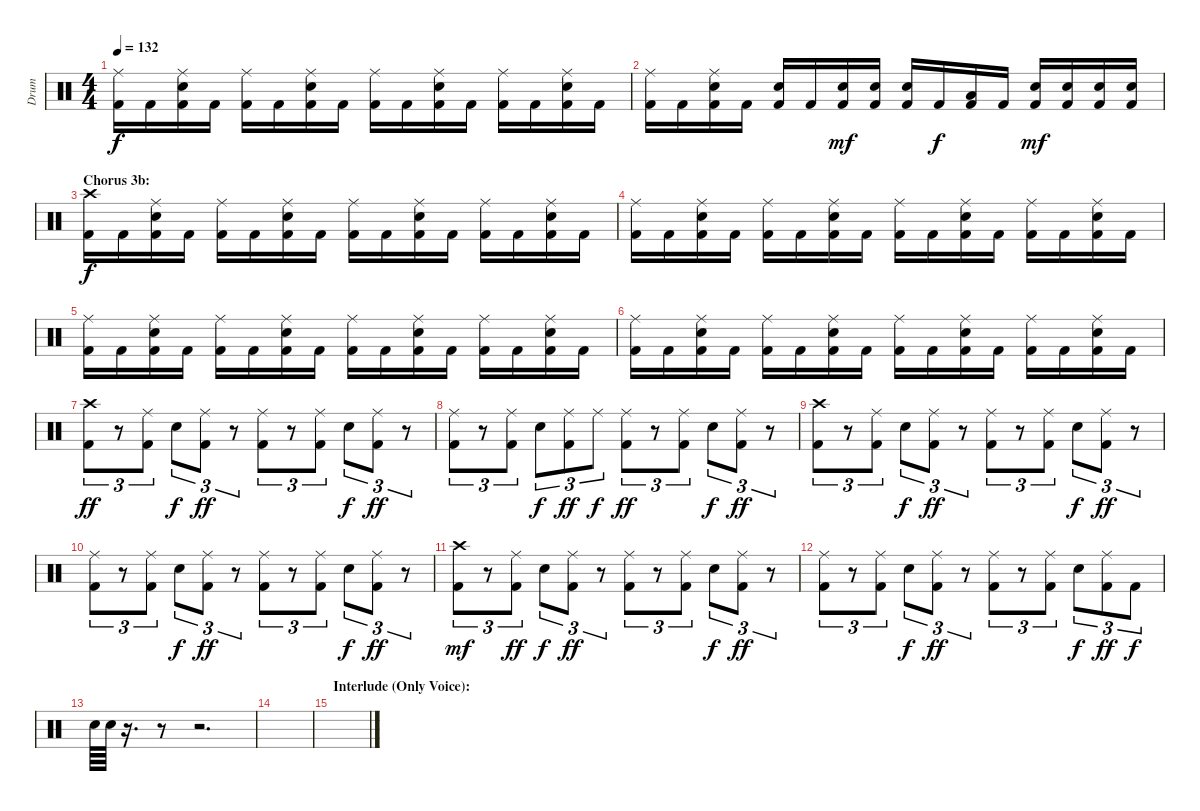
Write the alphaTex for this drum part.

\track ("Drum" "Drum") {instrument percussion}
\staff {score}
\articulation defaults
\ts (4 4)
\tempo 132
\clef neutral
\ks c
("Kick (hit) 2" "Ride (middle)").16{dy f} "Kick (hit) 2".16 ("Kick (hit) 2" "Snare (hit) 2" "Ride (middle)").16 "Kick (hit) 2".16 ("Kick (hit) 2" "Ride (middle)").16 "Kick (hit) 2".16 ("Kick (hit) 2" "Snare (hit) 2" "Ride (middle)").16 "Kick (hit) 2".16 ("Kick (hit) 2" "Ride (middle)").16 "Kick (hit) 2".16 ("Kick (hit) 2" "Snare (hit) 2" "Ride (middle)").16 "Kick (hit) 2".16 ("Kick (hit) 2" "Ride (middle)").16 "Kick (hit) 2".16 ("Kick (hit) 2" "Snare (hit) 2" "Ride (middle)").16 "Kick (hit) 2".16 |
("Kick (hit) 2" "Ride (middle)").16 "Kick (hit) 2".16 ("Kick (hit) 2" "Snare (hit) 2" "Ride (middle)").16 "Kick (hit) 2".16 ("Kick (hit) 2" "Snare (hit) 2").16 "Kick (hit) 2".16 ("Kick (hit) 2" "Snare (hit) 2").16{dy mf} ("Kick (hit) 2" "Snare (hit) 2").16 ("Kick (hit) 2" "Snare (hit) 2").16 "Kick (hit) 2".16{dy f} ("Kick (hit) 2" "Low Tom (hit)").16 "Kick (hit) 2".16 ("Kick (hit) 2" "Snare (hit) 2").16{dy mf} ("Kick (hit) 2" "Snare (hit) 2").16 ("Kick (hit) 2" "Snare (hit) 2").16 ("Kick (hit) 2" "Snare (hit) 2").16 |
\section ("" "Chorus 3b:")
("Kick (hit) 2" "Crash high (hit)").16{dy f} "Kick (hit) 2".16 ("Kick (hit) 2" "Snare (hit) 2" "Ride (middle)").16 "Kick (hit) 2".16 ("Kick (hit) 2" "Ride (middle)").16 "Kick (hit) 2".16 ("Kick (hit) 2" "Snare (hit) 2" "Ride (middle)").16 "Kick (hit) 2".16 ("Kick (hit) 2" "Ride (middle)").16 "Kick (hit) 2".16 ("Kick (hit) 2" "Snare (hit) 2" "Ride (middle)").16 "Kick (hit) 2".16 ("Kick (hit) 2" "Ride (middle)").16 "Kick (hit) 2".16 ("Kick (hit) 2" "Snare (hit) 2" "Ride (middle)").16 "Kick (hit) 2".16 |
("Kick (hit) 2" "Ride (middle)").16 "Kick (hit) 2".16 ("Kick (hit) 2" "Snare (hit) 2" "Ride (middle)").16 "Kick (hit) 2".16 ("Kick (hit) 2" "Ride (middle)").16 "Kick (hit) 2".16 ("Kick (hit) 2" "Snare (hit) 2" "Ride (middle)").16 "Kick (hit) 2".16 ("Kick (hit) 2" "Ride (middle)").16 "Kick (hit) 2".16 ("Kick (hit) 2" "Snare (hit) 2" "Ride (middle)").16 "Kick (hit) 2".16 ("Kick (hit) 2" "Ride (middle)").16 "Kick (hit) 2".16 ("Kick (hit) 2" "Snare (hit) 2" "Ride (middle)").16 "Kick (hit) 2".16 |
("Kick (hit) 2" "Ride (middle)").16 "Kick (hit) 2".16 ("Kick (hit) 2" "Snare (hit) 2" "Ride (middle)").16 "Kick (hit) 2".16 ("Kick (hit) 2" "Ride (middle)").16 "Kick (hit) 2".16 ("Kick (hit) 2" "Snare (hit) 2" "Ride (middle)").16 "Kick (hit) 2".16 ("Kick (hit) 2" "Ride (middle)").16 "Kick (hit) 2".16 ("Kick (hit) 2" "Snare (hit) 2" "Ride (middle)").16 "Kick (hit) 2".16 ("Kick (hit) 2" "Ride (middle)").16 "Kick (hit) 2".16 ("Kick (hit) 2" "Snare (hit) 2" "Ride (middle)").16 "Kick (hit) 2".16 |
("Kick (hit) 2" "Ride (middle)").16 "Kick (hit) 2".16 ("Kick (hit) 2" "Snare (hit) 2" "Ride (middle)").16 "Kick (hit) 2".16 ("Kick (hit) 2" "Ride (middle)").16 "Kick (hit) 2".16 ("Kick (hit) 2" "Snare (hit) 2" "Ride (middle)").16 "Kick (hit) 2".16 ("Kick (hit) 2" "Ride (middle)").16 "Kick (hit) 2".16 ("Kick (hit) 2" "Snare (hit) 2" "Ride (middle)").16 "Kick (hit) 2".16 ("Kick (hit) 2" "Ride (middle)").16 "Kick (hit) 2".16 ("Kick (hit) 2" "Snare (hit) 2" "Ride (middle)").16 "Kick (hit) 2".16 |
("Kick (hit) 2" "Crash high (hit)").8{tu (3 2) dy ff} r.8{tu (3 2)} ("Kick (hit) 2" "Ride (middle)").8{tu (3 2)} "Snare (hit) 2".8{tu (3 2) dy f} ("Kick (hit) 2" "Ride (middle)").8{tu (3 2) dy ff} r.8{tu (3 2)} ("Kick (hit) 2" "Ride (middle)").8{tu (3 2)} r.8{tu (3 2)} ("Kick (hit) 2" "Ride (middle)").8{tu (3 2)} "Snare (hit) 2".8{tu (3 2) dy f} ("Kick (hit) 2" "Ride (middle)").8{tu (3 2) dy ff} r.8{tu (3 2)} |
("Kick (hit) 2" "Ride (middle)").8{tu (3 2)} r.8{tu (3 2)} ("Kick (hit) 2" "Ride (middle)").8{tu (3 2)} "Snare (hit) 2".8{tu (3 2) dy f} ("Kick (hit) 2" "Ride (middle)").8{tu (3 2) dy ff} "Ride (middle)".8{tu (3 2) dy f} ("Kick (hit) 2" "Ride (middle)").8{tu (3 2) dy ff} r.8{tu (3 2)} ("Kick (hit) 2" "Ride (middle)").8{tu (3 2)} "Snare (hit) 2".8{tu (3 2) dy f} ("Kick (hit) 2" "Ride (middle)").8{tu (3 2) dy ff} r.8{tu (3 2)} |
("Kick (hit) 2" "Crash high (hit)").8{tu (3 2)} r.8{tu (3 2)} ("Kick (hit) 2" "Ride (middle)").8{tu (3 2)} "Snare (hit) 2".8{tu (3 2) dy f} ("Kick (hit) 2" "Ride (middle)").8{tu (3 2) dy ff} r.8{tu (3 2)} ("Kick (hit) 2" "Ride (middle)").8{tu (3 2)} r.8{tu (3 2)} ("Kick (hit) 2" "Ride (middle)").8{tu (3 2)} "Snare (hit) 2".8{tu (3 2) dy f} ("Kick (hit) 2" "Ride (middle)").8{tu (3 2) dy ff} r.8{tu (3 2)} |
("Kick (hit) 2" "Ride (middle)").8{tu (3 2)} r.8{tu (3 2)} ("Kick (hit) 2" "Ride (middle)").8{tu (3 2)} "Snare (hit) 2".8{tu (3 2) dy f} ("Kick (hit) 2" "Ride (middle)").8{tu (3 2) dy ff} r.8{tu (3 2)} ("Kick (hit) 2" "Ride (middle)").8{tu (3 2)} r.8{tu (3 2)} ("Kick (hit) 2" "Ride (middle)").8{tu (3 2)} "Snare (hit) 2".8{tu (3 2) dy f} ("Kick (hit) 2" "Ride (middle)").8{tu (3 2) dy ff} r.8{tu (3 2)} |
("Kick (hit) 2" "Crash high (hit)").8{tu (3 2) dy mf} r.8{tu (3 2)} ("Kick (hit) 2" "Ride (middle)").8{tu (3 2) dy ff} "Snare (hit) 2".8{tu (3 2) dy f} ("Kick (hit) 2" "Ride (middle)").8{tu (3 2) dy ff} r.8{tu (3 2)} ("Kick (hit) 2" "Ride (middle)").8{tu (3 2)} r.8{tu (3 2)} ("Kick (hit) 2" "Ride (middle)").8{tu (3 2)} "Snare (hit) 2".8{tu (3 2) dy f} ("Kick (hit) 2" "Ride (middle)").8{tu (3 2) dy ff} r.8{tu (3 2)} |
("Kick (hit) 2" "Ride (middle)").8{tu (3 2)} r.8{tu (3 2)} ("Kick (hit) 2" "Ride (middle)").8{tu (3 2)} "Snare (hit) 2".8{tu (3 2) dy f} ("Kick (hit) 2" "Ride (middle)").8{tu (3 2) dy ff} r.8{tu (3 2)} ("Kick (hit) 2" "Ride (middle)").8{tu (3 2)} r.8{tu (3 2)} ("Kick (hit) 2" "Ride (middle)").8{tu (3 2)} "Snare (hit) 2".8{tu (3 2) dy f} ("Kick (hit) 2" "Ride (middle)").8{tu (3 2) dy ff} "Kick (hit) 2".8{tu (3 2) dy f} |
"Snare (hit) 2".64 "Snare (hit) 2".64 r.16{d} r.8 r.2{d} |
|
\section ("" "Interlude (Only Voice):")
